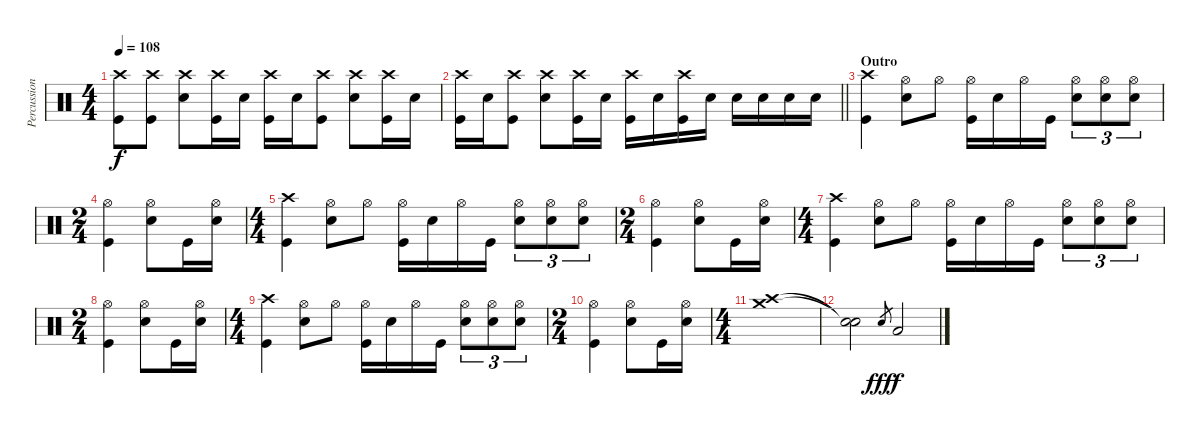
\track ("Percussion" "Percussion") {instrument percussion}
\staff {score}
\articulation defaults
\ts (4 4)
\tempo 108
\clef neutral
\ks c
("Crash high (hit)" "Kick (hit)").8{dy f} ("Crash high (hit)" "Kick (hit)").8 ("Crash high (hit)" "Electric Snare (hit)").8 ("Crash high (hit)" "Kick (hit)").16 "Electric Snare (hit)".16 ("Crash high (hit)" "Kick (hit)").16 "Electric Snare (hit)".16 ("Crash high (hit)" "Kick (hit)").8 ("Crash high (hit)" "Electric Snare (hit)").8 ("Crash high (hit)" "Kick (hit)").16 "Electric Snare (hit)".16 |
\barLineRight lightlight
("Crash high (hit)" "Kick (hit)").16 "Electric Snare (hit)".16 ("Crash high (hit)" "Kick (hit)").8 ("Crash high (hit)" "Electric Snare (hit)").8 ("Crash high (hit)" "Kick (hit)").16 "Electric Snare (hit)".16 ("Crash high (hit)" "Kick (hit)").16 "Electric Snare (hit)".16 ("Crash high (hit)" "Kick (hit)").16 "Electric Snare (hit)".16 "Electric Snare (hit)".16 "Electric Snare (hit)".16 "Electric Snare (hit)".16 "Electric Snare (hit)".16 |
\section ("" "Outro")
("Crash high (hit)" "Kick (hit)").4 ("Hi-Hat (open)" "Electric Snare (hit)").8 "Hi-Hat (open)".8 ("Hi-Hat (open)" "Kick (hit)").16 "Electric Snare (hit)".16 "Hi-Hat (open)".16 "Kick (hit)".16 ("Hi-Hat (open)" "Electric Snare (hit)").8{tu (3 2)} ("Hi-Hat (open)" "Electric Snare (hit)").8{tu (3 2)} ("Hi-Hat (open)" "Electric Snare (hit)").8{tu (3 2)} |
\ts (2 4)
("Hi-Hat (open)" "Kick (hit)").4 ("Hi-Hat (open)" "Electric Snare (hit)").8 "Kick (hit)".16 ("Hi-Hat (open)" "Electric Snare (hit)").16 |
\ts (4 4)
("Crash high (hit)" "Kick (hit)").4 ("Hi-Hat (open)" "Electric Snare (hit)").8 "Hi-Hat (open)".8 ("Hi-Hat (open)" "Kick (hit)").16 "Electric Snare (hit)".16 "Hi-Hat (open)".16 "Kick (hit)".16 ("Hi-Hat (open)" "Electric Snare (hit)").8{tu (3 2)} ("Hi-Hat (open)" "Electric Snare (hit)").8{tu (3 2)} ("Hi-Hat (open)" "Electric Snare (hit)").8{tu (3 2)} |
\ts (2 4)
("Hi-Hat (open)" "Kick (hit)").4 ("Hi-Hat (open)" "Electric Snare (hit)").8 "Kick (hit)".16 ("Hi-Hat (open)" "Electric Snare (hit)").16 |
\ts (4 4)
("Crash high (hit)" "Kick (hit)").4 ("Hi-Hat (open)" "Electric Snare (hit)").8 "Hi-Hat (open)".8 ("Hi-Hat (open)" "Kick (hit)").16 "Electric Snare (hit)".16 "Hi-Hat (open)".16 "Kick (hit)".16 ("Hi-Hat (open)" "Electric Snare (hit)").8{tu (3 2)} ("Hi-Hat (open)" "Electric Snare (hit)").8{tu (3 2)} ("Hi-Hat (open)" "Electric Snare (hit)").8{tu (3 2)} |
\ts (2 4)
("Hi-Hat (open)" "Kick (hit)").4 ("Hi-Hat (open)" "Electric Snare (hit)").8 "Kick (hit)".16 ("Hi-Hat (open)" "Electric Snare (hit)").16 |
\ts (4 4)
("Crash high (hit)" "Kick (hit)").4 ("Hi-Hat (open)" "Electric Snare (hit)").8 "Hi-Hat (open)".8 ("Hi-Hat (open)" "Kick (hit)").16 "Electric Snare (hit)".16 "Hi-Hat (open)".16 "Kick (hit)".16 ("Hi-Hat (open)" "Electric Snare (hit)").8{tu (3 2)} ("Hi-Hat (open)" "Electric Snare (hit)").8{tu (3 2)} ("Hi-Hat (open)" "Electric Snare (hit)").8{tu (3 2)} |
\ts (2 4)
("Hi-Hat (open)" "Kick (hit)").4 ("Hi-Hat (open)" "Electric Snare (hit)").8 "Kick (hit)".16 ("Hi-Hat (open)" "Electric Snare (hit)").16 |
\ts (4 4)
("Crash high (hit)" "Crash medium (hit)").1 |
("Snare (hit)"{t} "Snare (hit)"{t}).2 "Electric Snare (hit)".8{gr dy fff} "Low Floor Tom (hit)".2{dy f}
